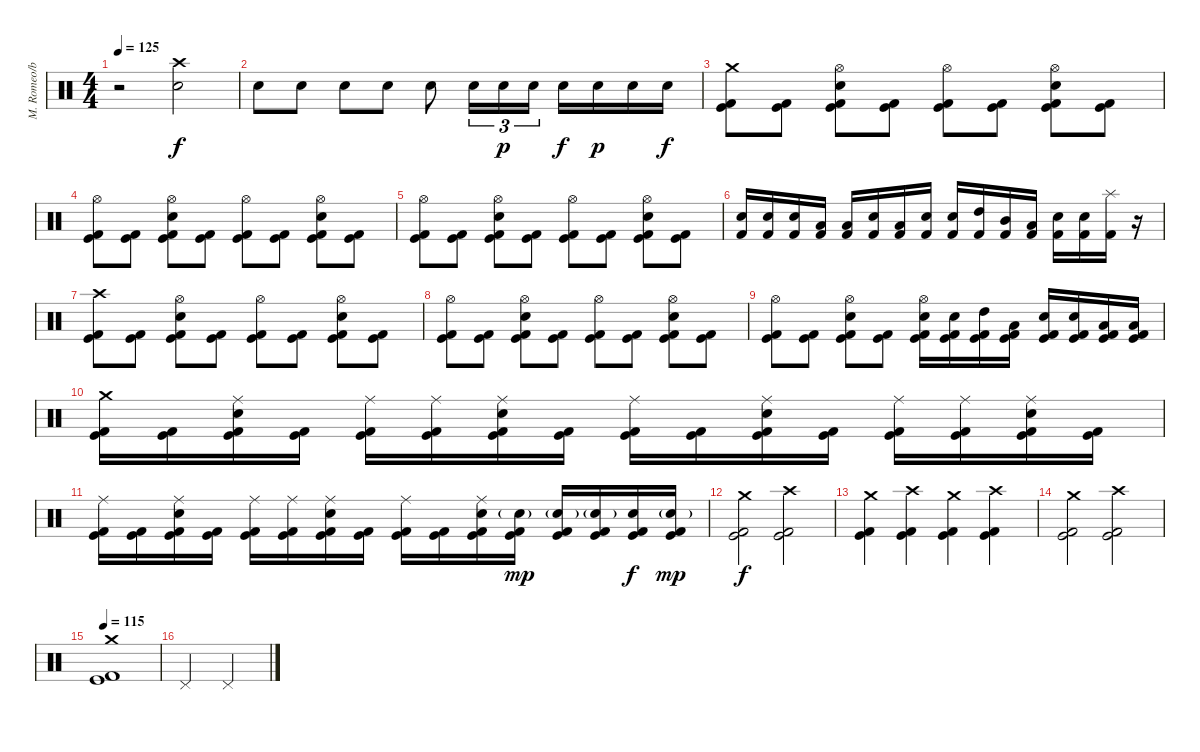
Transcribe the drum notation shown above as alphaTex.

\track ("M. Romeo/bateria" "M. Romeo/b") {instrument percussion}
\staff {score}
\articulation defaults
\ts (4 4)
\tempo 125
\clef neutral
\ks c
r.2{dy f} ("Crash high (hit)" "Electric Snare (hit)").2 |
"Electric Snare (hit)".8 "Electric Snare (hit)".8 "Electric Snare (hit)".8 "Electric Snare (hit)".8 "Electric Snare (hit)".8 "Electric Snare (hit)".16{tu (3 2)} "Electric Snare (hit)".16{tu (3 2) dy p} "Electric Snare (hit)".16{tu (3 2)} "Electric Snare (hit)".16{dy f} "Electric Snare (hit)".16{dy p} "Electric Snare (hit)".16 "Electric Snare (hit)".16{dy f} |
("Crash medium (hit)" "Kick (hit)" "Kick (hit) 2").8 ("Kick (hit)" "Kick (hit) 2").8 ("Hi-Hat (open)" "Electric Snare (hit)" "Kick (hit)" "Kick (hit) 2").8 ("Kick (hit)" "Kick (hit) 2").8 ("Hi-Hat (open)" "Kick (hit)" "Kick (hit) 2").8 ("Kick (hit)" "Kick (hit) 2").8 ("Hi-Hat (open)" "Electric Snare (hit)" "Kick (hit)" "Kick (hit) 2").8 ("Kick (hit)" "Kick (hit) 2").8 |
("Hi-Hat (open)" "Kick (hit)" "Kick (hit) 2").8 ("Kick (hit)" "Kick (hit) 2").8 ("Hi-Hat (open)" "Electric Snare (hit)" "Kick (hit)" "Kick (hit) 2").8 ("Kick (hit)" "Kick (hit) 2").8 ("Hi-Hat (open)" "Kick (hit)" "Kick (hit) 2").8 ("Kick (hit)" "Kick (hit) 2").8 ("Hi-Hat (open)" "Electric Snare (hit)" "Kick (hit)" "Kick (hit) 2").8 ("Kick (hit)" "Kick (hit) 2").8 |
("Hi-Hat (open)" "Kick (hit)" "Kick (hit) 2").8 ("Kick (hit)" "Kick (hit) 2").8 ("Hi-Hat (open)" "Electric Snare (hit)" "Kick (hit)" "Kick (hit) 2").8 ("Kick (hit)" "Kick (hit) 2").8 ("Hi-Hat (open)" "Kick (hit)" "Kick (hit) 2").8 ("Kick (hit)" "Kick (hit) 2").8 ("Hi-Hat (open)" "Electric Snare (hit)" "Kick (hit)" "Kick (hit) 2").8 ("Kick (hit)" "Kick (hit) 2").8 |
("Electric Snare (hit)" "Kick (hit) 2").16 ("Electric Snare (hit)" "Kick (hit) 2").16 ("Electric Snare (hit)" "Kick (hit) 2").16 ("Low Tom (hit)" "Kick (hit) 2").16 ("Low Tom (hit)" "Kick (hit) 2").16 ("Electric Snare (hit)" "Kick (hit) 2").16 ("Low Tom (hit)" "Kick (hit) 2").16 ("Electric Snare (hit)" "Kick (hit) 2").16 ("Electric Snare (hit)" "Kick (hit) 2").16 ("High Tom (hit)" "Kick (hit) 2").16 ("Mid Tom (hit)" "Kick (hit) 2").16 ("Low Tom (hit)" "Kick (hit) 2").16 ("Electric Snare (hit)" "Kick (hit) 2").16 ("Electric Snare (hit)" "Kick (hit) 2").16 ("Splash (hit)" "Kick (hit) 2").16 r.16 |
("Crash high (hit)" "Kick (hit)" "Kick (hit) 2").8 ("Kick (hit)" "Kick (hit) 2").8 ("Hi-Hat (open)" "Electric Snare (hit)" "Kick (hit)" "Kick (hit) 2").8 ("Kick (hit)" "Kick (hit) 2").8 ("Hi-Hat (open)" "Kick (hit)" "Kick (hit) 2").8 ("Kick (hit)" "Kick (hit) 2").8 ("Hi-Hat (open)" "Electric Snare (hit)" "Kick (hit)" "Kick (hit) 2").8 ("Kick (hit)" "Kick (hit) 2").8 |
("Hi-Hat (open)" "Kick (hit)" "Kick (hit) 2").8 ("Kick (hit)" "Kick (hit) 2").8 ("Hi-Hat (open)" "Electric Snare (hit)" "Kick (hit)" "Kick (hit) 2").8 ("Kick (hit)" "Kick (hit) 2").8 ("Hi-Hat (open)" "Kick (hit)" "Kick (hit) 2").8 ("Kick (hit)" "Kick (hit) 2").8 ("Hi-Hat (open)" "Electric Snare (hit)" "Kick (hit)" "Kick (hit) 2").8 ("Kick (hit)" "Kick (hit) 2").8 |
("Hi-Hat (open)" "Kick (hit)" "Kick (hit) 2").8 ("Kick (hit)" "Kick (hit) 2").8 ("Hi-Hat (open)" "Electric Snare (hit)" "Kick (hit)" "Kick (hit) 2").8 ("Kick (hit)" "Kick (hit) 2").8 ("Hi-Hat (open)" "Electric Snare (hit)" "Kick (hit)" "Kick (hit) 2").16 ("Electric Snare (hit)" "Kick (hit)" "Kick (hit) 2").16 ("High Tom (hit)" "Kick (hit)" "Kick (hit) 2").16 ("Low Tom (hit)" "Kick (hit)" "Kick (hit) 2").16 ("Electric Snare (hit)" "Kick (hit)" "Kick (hit) 2").16 ("Electric Snare (hit)" "Kick (hit)" "Kick (hit) 2").16 ("Low Tom (hit)" "Kick (hit)" "Kick (hit) 2").16 ("Low Tom (hit)" "Kick (hit)" "Kick (hit) 2").16 |
("Crash medium (hit)" "Kick (hit)" "Kick (hit) 2").16 ("Kick (hit)" "Kick (hit) 2").16 ("Ride (middle)" "Electric Snare (hit)" "Kick (hit)" "Kick (hit) 2").16 ("Kick (hit)" "Kick (hit) 2").16 ("Ride (middle)" "Kick (hit)" "Kick (hit) 2").16 ("Ride (middle)" "Kick (hit)" "Kick (hit) 2").16 ("Ride (middle)" "Electric Snare (hit)" "Kick (hit)" "Kick (hit) 2").16 ("Kick (hit)" "Kick (hit) 2").16 ("Ride (middle)" "Kick (hit)" "Kick (hit) 2").16 ("Kick (hit)" "Kick (hit) 2").16 ("Ride (middle)" "Electric Snare (hit)" "Kick (hit)" "Kick (hit) 2").16 ("Kick (hit)" "Kick (hit) 2").16 ("Ride (middle)" "Kick (hit)" "Kick (hit) 2").16 ("Ride (middle)" "Kick (hit)" "Kick (hit) 2").16 ("Ride (middle)" "Electric Snare (hit)" "Kick (hit)" "Kick (hit) 2").16 ("Kick (hit)" "Kick (hit) 2").16 |
("Ride (middle)" "Kick (hit)" "Kick (hit) 2").16 ("Kick (hit)" "Kick (hit) 2").16 ("Ride (middle)" "Electric Snare (hit)" "Kick (hit)" "Kick (hit) 2").16 ("Kick (hit)" "Kick (hit) 2").16 ("Ride (middle)" "Kick (hit)" "Kick (hit) 2").16 ("Ride (middle)" "Kick (hit)" "Kick (hit) 2").16 ("Ride (middle)" "Electric Snare (hit)" "Kick (hit)" "Kick (hit) 2").16 ("Kick (hit)" "Kick (hit) 2").16 ("Ride (middle)" "Kick (hit)" "Kick (hit) 2").16 ("Kick (hit)" "Kick (hit) 2").16 ("Ride (middle)" "Electric Snare (hit)" "Kick (hit)" "Kick (hit) 2").16 ("Electric Snare (hit)"{g} "Kick (hit)" "Kick (hit) 2").16{dy mp} ("Electric Snare (hit)"{g} "Kick (hit)" "Kick (hit) 2").16 ("Electric Snare (hit)"{g} "Kick (hit)" "Kick (hit) 2").16 ("Electric Snare (hit)" "Kick (hit)" "Kick (hit) 2").16{dy f} ("Electric Snare (hit)"{g} "Kick (hit)" "Kick (hit) 2").16{dy mp} |
("Crash medium (hit)" "Kick (hit)" "Kick (hit) 2").2{dy f} ("Crash high (hit)" "Kick (hit)" "Kick (hit) 2").2 |
("Crash medium (hit)" "Kick (hit)" "Kick (hit) 2").4 ("Crash high (hit)" "Kick (hit)" "Kick (hit) 2").4 ("Crash medium (hit)" "Kick (hit)" "Kick (hit) 2").4 ("Crash high (hit)" "Kick (hit)" "Kick (hit) 2").4 |
("Crash medium (hit)" "Kick (hit)" "Kick (hit) 2").2 ("Crash high (hit)" "Kick (hit)" "Kick (hit) 2").2 |
\tempo 115
("Crash medium (hit)" "Kick (hit)" "Kick (hit) 2").1 |
"Pedal Hi-Hat (hit)".2 "Pedal Hi-Hat (hit)".2
